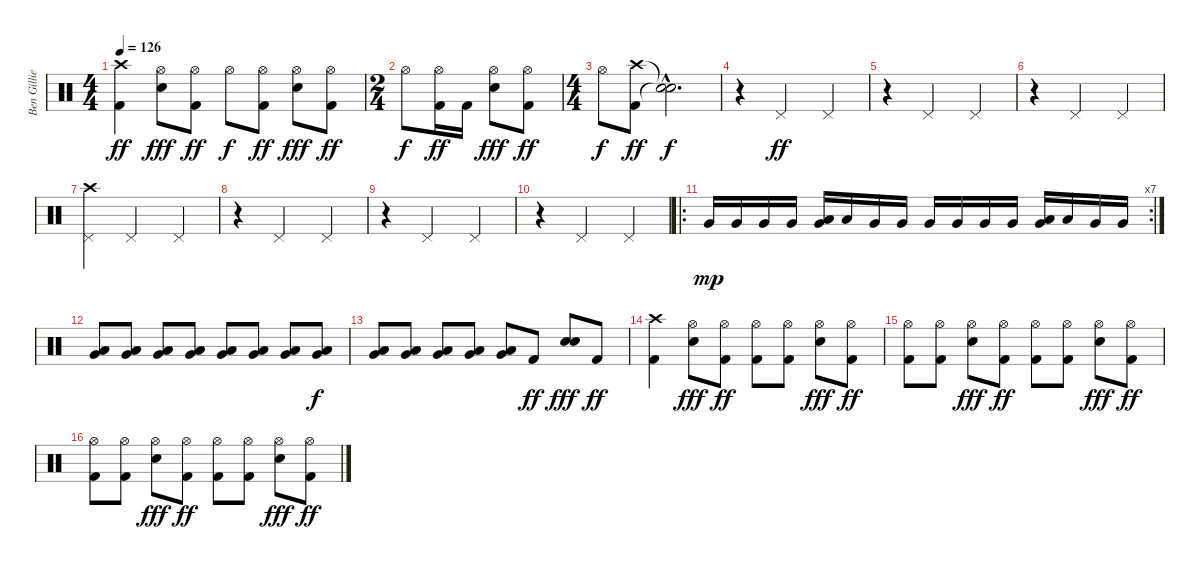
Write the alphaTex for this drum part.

\track ("Ben Gillies" "Ben Gillie") {instrument percussion}
\staff {score}
\articulation defaults
\ts (4 4)
\tempo 126
\clef neutral
\ks c
("Crash high (hit)" "Kick (hit) 2").4{dy ff} ("Hi-Hat (open)" "Electric Snare (hit)").8{dy fff} ("Hi-Hat (open)" "Kick (hit) 2").8{dy ff} "Hi-Hat (open)".8{dy f} ("Hi-Hat (open)" "Kick (hit) 2").8{dy ff} ("Hi-Hat (open)" "Electric Snare (hit)").8{dy fff} ("Hi-Hat (open)" "Kick (hit) 2").8{dy ff} |
\ts (2 4)
"Hi-Hat (open)".8{dy f} ("Hi-Hat (open)" "Kick (hit) 2").16{dy ff} "Kick (hit) 2".16 ("Hi-Hat (open)" "Electric Snare (hit)").8{dy fff} ("Hi-Hat (open)" "Kick (hit) 2").8{dy ff} |
\ts (4 4)
"Hi-Hat (open)".8{dy f} ("Crash high (hit)" "Kick (hit) 2").8{dy ff} ("Snare (hit)"{hac t} "Snare (hit)"{hac t}).2{d dy f} |
r.4 "Pedal Hi-Hat (hit)".2{dy ff} "Pedal Hi-Hat (hit)".4 |
r.4 "Pedal Hi-Hat (hit)".2 "Pedal Hi-Hat (hit)".4 |
r.4 "Pedal Hi-Hat (hit)".2 "Pedal Hi-Hat (hit)".4 |
("Crash high (hit)" "Pedal Hi-Hat (hit)").4 "Pedal Hi-Hat (hit)".2 "Pedal Hi-Hat (hit)".4 |
r.4 "Pedal Hi-Hat (hit)".2 "Pedal Hi-Hat (hit)".4 |
r.4 "Pedal Hi-Hat (hit)".2 "Pedal Hi-Hat (hit)".4 |
r.4 "Pedal Hi-Hat (hit)".2 "Pedal Hi-Hat (hit)".4 |
\ro
\rc 7 "Very Low Tom (hit)".16{dy mp} "Very Low Tom (hit)".16 "Very Low Tom (hit)".16 "Very Low Tom (hit)".16
("Low Floor Tom (hit)" "Very Low Tom (hit)").16 "Low Floor Tom (hit)".16 "Very Low Tom (hit)".16 "Very Low Tom (hit)".16 "Very Low Tom (hit)".16 "Very Low Tom (hit)".16 "Very Low Tom (hit)".16 "Very Low Tom (hit)".16 ("Low Floor Tom (hit)" "Very Low Tom (hit)").16 "Low Floor Tom (hit)".16 "Very Low Tom (hit)".16 "Very Low Tom (hit)".16 |
("Low Floor Tom (hit)" "Very Low Tom (hit)").8 ("Low Floor Tom (hit)" "Very Low Tom (hit)").8 ("Low Floor Tom (hit)" "Very Low Tom (hit)").8 ("Low Floor Tom (hit)" "Very Low Tom (hit)").8 ("Low Floor Tom (hit)" "Very Low Tom (hit)").8 ("Low Floor Tom (hit)" "Very Low Tom (hit)").8 ("Low Floor Tom (hit)" "Very Low Tom (hit)").8 ("Low Floor Tom (hit)" "Very Low Tom (hit)").8{dy f} |
("Low Floor Tom (hit)" "Very Low Tom (hit)").8 ("Low Floor Tom (hit)" "Very Low Tom (hit)").8 ("Low Floor Tom (hit)" "Very Low Tom (hit)").8 ("Low Floor Tom (hit)" "Very Low Tom (hit)").8 ("Low Floor Tom (hit)" "Very Low Tom (hit)").8 "Kick (hit) 2".8{dy ff} ("Electric Snare (hit)" "Electric Snare (hit)").8{dy fff} "Kick (hit) 2".8{dy ff} |
("Crash high (hit)" "Kick (hit) 2").4 ("Hi-Hat (open)" "Electric Snare (hit)").8{dy fff} ("Hi-Hat (open)" "Kick (hit) 2").8{dy ff} ("Hi-Hat (open)" "Kick (hit) 2").8 ("Hi-Hat (open)" "Kick (hit) 2").8 ("Hi-Hat (open)" "Electric Snare (hit)").8{dy fff} ("Hi-Hat (open)" "Kick (hit) 2").8{dy ff} |
("Hi-Hat (open)" "Kick (hit) 2").8 ("Hi-Hat (open)" "Kick (hit) 2").8 ("Hi-Hat (open)" "Electric Snare (hit)").8{dy fff} ("Hi-Hat (open)" "Kick (hit) 2").8{dy ff} ("Hi-Hat (open)" "Kick (hit) 2").8 ("Hi-Hat (open)" "Kick (hit) 2").8 ("Hi-Hat (open)" "Electric Snare (hit)").8{dy fff} ("Hi-Hat (open)" "Kick (hit) 2").8{dy ff} |
("Hi-Hat (open)" "Kick (hit) 2").8 ("Hi-Hat (open)" "Kick (hit) 2").8 ("Hi-Hat (open)" "Electric Snare (hit)").8{dy fff} ("Hi-Hat (open)" "Kick (hit) 2").8{dy ff} ("Hi-Hat (open)" "Kick (hit) 2").8 ("Hi-Hat (open)" "Kick (hit) 2").8 ("Hi-Hat (open)" "Electric Snare (hit)").8{dy fff} ("Hi-Hat (open)" "Kick (hit) 2").8{dy ff}
